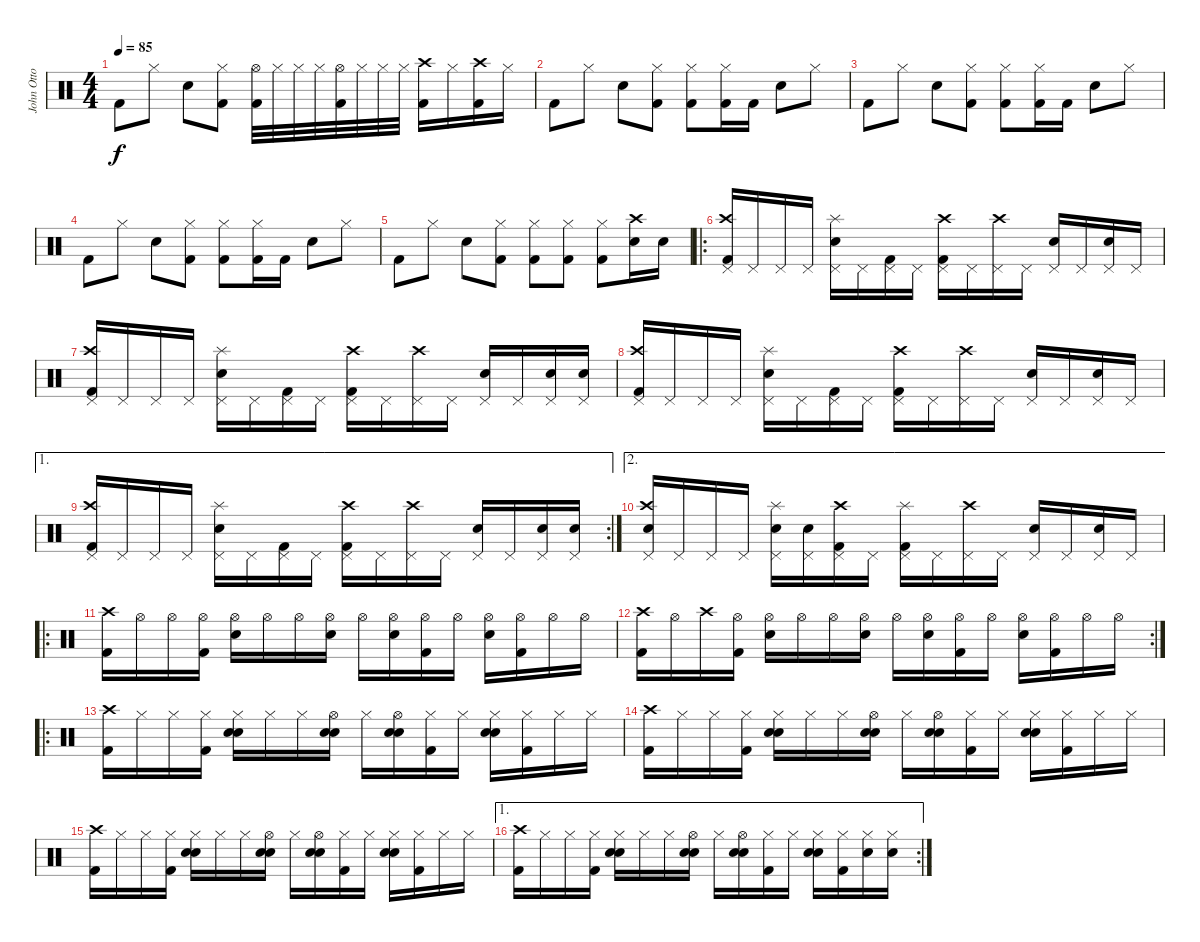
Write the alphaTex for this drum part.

\track ("John Otto" "John Otto") {instrument percussion}
\staff {score}
\articulation defaults
\ts (4 4)
\tempo 85
\clef neutral
\ks c "Kick (hit) 2".8{dy f} "Hi-Hat (closed)".8 "Electric Snare (hit)".8
("Hi-Hat (closed)" "Kick (hit) 2").8 ("Hi-Hat (open)" "Kick (hit) 2").32 "Hi-Hat (closed)".32 "Hi-Hat (closed)".32 "Hi-Hat (closed)".32 ("Hi-Hat (open)" "Kick (hit) 2").32 "Hi-Hat (closed)".32 "Hi-Hat (closed)".32 "Hi-Hat (closed)".32 ("Crash high (hit)" "Kick (hit) 2").16 "Hi-Hat (closed)".16 ("Crash high (hit)" "Kick (hit) 2").16 "Hi-Hat (closed)".16 |
"Kick (hit) 2".8 "Hi-Hat (closed)".8 "Electric Snare (hit)".8 ("Hi-Hat (closed)" "Kick (hit) 2").8 ("Hi-Hat (closed)" "Kick (hit) 2").8 ("Hi-Hat (closed)" "Kick (hit) 2").16 "Kick (hit) 2".16 "Electric Snare (hit)".8 "Hi-Hat (closed)".8 |
"Kick (hit) 2".8 "Hi-Hat (closed)".8 "Electric Snare (hit)".8 ("Hi-Hat (closed)" "Kick (hit) 2").8 ("Hi-Hat (closed)" "Kick (hit) 2").8 ("Hi-Hat (closed)" "Kick (hit) 2").16 "Kick (hit) 2".16 "Electric Snare (hit)".8 "Hi-Hat (closed)".8 |
"Kick (hit) 2".8 "Hi-Hat (closed)".8 "Electric Snare (hit)".8 ("Hi-Hat (closed)" "Kick (hit) 2").8 ("Hi-Hat (closed)" "Kick (hit) 2").8 ("Hi-Hat (closed)" "Kick (hit) 2").16 "Kick (hit) 2".16 "Electric Snare (hit)".8 "Hi-Hat (closed)".8 |
"Kick (hit) 2".8 "Hi-Hat (closed)".8 "Electric Snare (hit)".8 ("Hi-Hat (closed)" "Kick (hit) 2").8 ("Hi-Hat (closed)" "Kick (hit) 2").8 ("Hi-Hat (closed)" "Kick (hit) 2").8 ("Hi-Hat (closed)" "Kick (hit) 2").8 ("Crash high (hit)" "Electric Snare (hit)").16 "Electric Snare (hit)".16 |
\ro
("Crash high (hit)" "Pedal Hi-Hat (hit)" "Kick (hit) 2").16 "Pedal Hi-Hat (hit)".16 "Pedal Hi-Hat (hit)".16 "Pedal Hi-Hat (hit)".16 ("Splash (hit)" "Pedal Hi-Hat (hit)" "Electric Snare (hit)").16 "Pedal Hi-Hat (hit)".16 ("Pedal Hi-Hat (hit)" "Kick (hit) 2").16 "Pedal Hi-Hat (hit)".16 ("Crash high (hit)" "Pedal Hi-Hat (hit)" "Kick (hit) 2").16 "Pedal Hi-Hat (hit)".16 ("Crash high (hit)" "Pedal Hi-Hat (hit)").16 "Pedal Hi-Hat (hit)".16 ("Pedal Hi-Hat (hit)" "Electric Snare (hit)").16 "Pedal Hi-Hat (hit)".16 ("Pedal Hi-Hat (hit)" "Electric Snare (hit)").16 "Pedal Hi-Hat (hit)".16 |
("Crash high (hit)" "Pedal Hi-Hat (hit)" "Kick (hit) 2").16 "Pedal Hi-Hat (hit)".16 "Pedal Hi-Hat (hit)".16 "Pedal Hi-Hat (hit)".16 ("Splash (hit)" "Pedal Hi-Hat (hit)" "Electric Snare (hit)").16 "Pedal Hi-Hat (hit)".16 ("Pedal Hi-Hat (hit)" "Kick (hit) 2").16 "Pedal Hi-Hat (hit)".16 ("Crash high (hit)" "Pedal Hi-Hat (hit)" "Kick (hit) 2").16 "Pedal Hi-Hat (hit)".16 ("Crash high (hit)" "Pedal Hi-Hat (hit)").16 "Pedal Hi-Hat (hit)".16 ("Pedal Hi-Hat (hit)" "Electric Snare (hit)").16 "Pedal Hi-Hat (hit)".16 ("Pedal Hi-Hat (hit)" "Electric Snare (hit)").16 ("Pedal Hi-Hat (hit)" "Electric Snare (hit)").16 |
("Crash high (hit)" "Pedal Hi-Hat (hit)" "Kick (hit) 2").16 "Pedal Hi-Hat (hit)".16 "Pedal Hi-Hat (hit)".16 "Pedal Hi-Hat (hit)".16 ("Splash (hit)" "Pedal Hi-Hat (hit)" "Electric Snare (hit)").16 "Pedal Hi-Hat (hit)".16 ("Pedal Hi-Hat (hit)" "Kick (hit) 2").16 "Pedal Hi-Hat (hit)".16 ("Crash high (hit)" "Pedal Hi-Hat (hit)" "Kick (hit) 2").16 "Pedal Hi-Hat (hit)".16 ("Crash high (hit)" "Pedal Hi-Hat (hit)").16 "Pedal Hi-Hat (hit)".16 ("Pedal Hi-Hat (hit)" "Electric Snare (hit)").16 "Pedal Hi-Hat (hit)".16 ("Pedal Hi-Hat (hit)" "Electric Snare (hit)").16 "Pedal Hi-Hat (hit)".16 |
\ae 1
\rc 2
("Crash high (hit)" "Pedal Hi-Hat (hit)" "Kick (hit) 2").16 "Pedal Hi-Hat (hit)".16 "Pedal Hi-Hat (hit)".16 "Pedal Hi-Hat (hit)".16 ("Splash (hit)" "Pedal Hi-Hat (hit)" "Electric Snare (hit)").16 "Pedal Hi-Hat (hit)".16 ("Pedal Hi-Hat (hit)" "Kick (hit) 2").16 "Pedal Hi-Hat (hit)".16 ("Crash high (hit)" "Pedal Hi-Hat (hit)" "Kick (hit) 2").16 "Pedal Hi-Hat (hit)".16 ("Crash high (hit)" "Pedal Hi-Hat (hit)").16 "Pedal Hi-Hat (hit)".16 ("Pedal Hi-Hat (hit)" "Electric Snare (hit)").16 "Pedal Hi-Hat (hit)".16 ("Pedal Hi-Hat (hit)" "Electric Snare (hit)").16 ("Pedal Hi-Hat (hit)" "Electric Snare (hit)").16 |
\ae 2
("Crash high (hit)" "Pedal Hi-Hat (hit)" "Electric Snare (hit)").16 "Pedal Hi-Hat (hit)".16 "Pedal Hi-Hat (hit)".16 "Pedal Hi-Hat (hit)".16 ("Splash (hit)" "Pedal Hi-Hat (hit)" "Electric Snare (hit)").16 ("Pedal Hi-Hat (hit)" "Electric Snare (hit)").16 ("Crash high (hit)" "Pedal Hi-Hat (hit)" "Kick (hit) 2").16 "Pedal Hi-Hat (hit)".16 ("Splash (hit)" "Pedal Hi-Hat (hit)" "Kick (hit) 2").16 "Pedal Hi-Hat (hit)".16 ("Crash high (hit)" "Pedal Hi-Hat (hit)").16 "Pedal Hi-Hat (hit)".16 ("Pedal Hi-Hat (hit)" "Electric Snare (hit)").16 "Pedal Hi-Hat (hit)".16 ("Pedal Hi-Hat (hit)" "Electric Snare (hit)").16 "Pedal Hi-Hat (hit)".16 |
\ro
("Crash high (hit)" "Kick (hit) 2").16 "Hi-Hat (open)".16 "Hi-Hat (open)".16 ("Hi-Hat (open)" "Kick (hit) 2").16 ("Hi-Hat (open)" "Electric Snare (hit)").16 "Hi-Hat (open)".16 "Hi-Hat (open)".16 ("Hi-Hat (open)" "Electric Snare (hit)").16 "Hi-Hat (open)".16 ("Hi-Hat (open)" "Electric Snare (hit)").16 ("Hi-Hat (open)" "Kick (hit) 2").16 "Hi-Hat (open)".16 ("Hi-Hat (open)" "Electric Snare (hit)").16 ("Hi-Hat (open)" "Kick (hit) 2").16 "Hi-Hat (open)".16 "Hi-Hat (open)".16 |
\rc 2
("Crash high (hit)" "Kick (hit) 2").16 "Hi-Hat (open)".16 "Crash high (hit)".16 ("Hi-Hat (open)" "Kick (hit) 2").16 ("Hi-Hat (open)" "Electric Snare (hit)").16 "Hi-Hat (open)".16 "Hi-Hat (open)".16 ("Hi-Hat (open)" "Electric Snare (hit)").16 "Hi-Hat (open)".16 ("Hi-Hat (open)" "Electric Snare (hit)").16 ("Hi-Hat (open)" "Kick (hit) 2").16 "Hi-Hat (open)".16 ("Hi-Hat (open)" "Electric Snare (hit)").16 ("Hi-Hat (open)" "Kick (hit) 2").16 "Hi-Hat (open)".16 "Hi-Hat (open)".16 |
\ro
("Crash high (hit)" "Kick (hit) 2").16 "Hi-Hat (closed)".16 "Hi-Hat (closed)".16 ("Hi-Hat (closed)" "Kick (hit) 2").16 ("Hi-Hat (closed)" "Hand Clap (hit)" "Electric Snare (hit)").16 "Hi-Hat (closed)".16 "Hi-Hat (closed)".16 ("Hi-Hat (open)" "Hand Clap (hit)" "Electric Snare (hit)").16 "Hi-Hat (closed)".16 ("Hi-Hat (open)" "Hand Clap (hit)" "Electric Snare (hit)").16 ("Hi-Hat (closed)" "Kick (hit) 2").16 "Hi-Hat (closed)".16 ("Hi-Hat (closed)" "Hand Clap (hit)" "Electric Snare (hit)").16 ("Hi-Hat (closed)" "Kick (hit) 2").16 "Hi-Hat (closed)".16 "Hi-Hat (closed)".16 |
("Crash high (hit)" "Kick (hit) 2").16 "Hi-Hat (closed)".16 "Hi-Hat (closed)".16 ("Hi-Hat (closed)" "Kick (hit) 2").16 ("Hi-Hat (closed)" "Hand Clap (hit)" "Electric Snare (hit)").16 "Hi-Hat (closed)".16 "Hi-Hat (closed)".16 ("Hi-Hat (open)" "Hand Clap (hit)" "Electric Snare (hit)").16 "Hi-Hat (closed)".16 ("Hi-Hat (open)" "Hand Clap (hit)" "Electric Snare (hit)").16 ("Hi-Hat (closed)" "Kick (hit) 2").16 "Hi-Hat (closed)".16 ("Hi-Hat (closed)" "Hand Clap (hit)" "Electric Snare (hit)").16 ("Hi-Hat (closed)" "Kick (hit) 2").16 "Hi-Hat (closed)".16 "Hi-Hat (closed)".16 |
("Crash high (hit)" "Kick (hit) 2").16 "Hi-Hat (closed)".16 "Hi-Hat (closed)".16 ("Hi-Hat (closed)" "Kick (hit) 2").16 ("Hi-Hat (closed)" "Hand Clap (hit)" "Electric Snare (hit)").16 "Hi-Hat (closed)".16 "Hi-Hat (closed)".16 ("Hi-Hat (open)" "Hand Clap (hit)" "Electric Snare (hit)").16 "Hi-Hat (closed)".16 ("Hi-Hat (open)" "Hand Clap (hit)" "Electric Snare (hit)").16 ("Hi-Hat (closed)" "Kick (hit) 2").16 "Hi-Hat (closed)".16 ("Hi-Hat (closed)" "Hand Clap (hit)" "Electric Snare (hit)").16 ("Hi-Hat (closed)" "Kick (hit) 2").16 "Hi-Hat (closed)".16 "Hi-Hat (closed)".16 |
\ae 1
\rc 2
("Crash high (hit)" "Kick (hit) 2").16 "Hi-Hat (closed)".16 "Hi-Hat (closed)".16 ("Hi-Hat (closed)" "Kick (hit) 2").16 ("Hi-Hat (closed)" "Hand Clap (hit)" "Electric Snare (hit)").16 "Hi-Hat (closed)".16 "Hi-Hat (closed)".16 ("Hi-Hat (open)" "Hand Clap (hit)" "Electric Snare (hit)").16 "Hi-Hat (closed)".16 ("Hi-Hat (open)" "Hand Clap (hit)" "Electric Snare (hit)").16 ("Hi-Hat (closed)" "Kick (hit) 2").16 "Hi-Hat (closed)".16 ("Hi-Hat (closed)" "Hand Clap (hit)" "Electric Snare (hit)").16 ("Hi-Hat (closed)" "Kick (hit) 2").16 ("Hi-Hat (closed)" "Electric Snare (hit)").16 ("Hi-Hat (closed)" "Electric Snare (hit)").16
